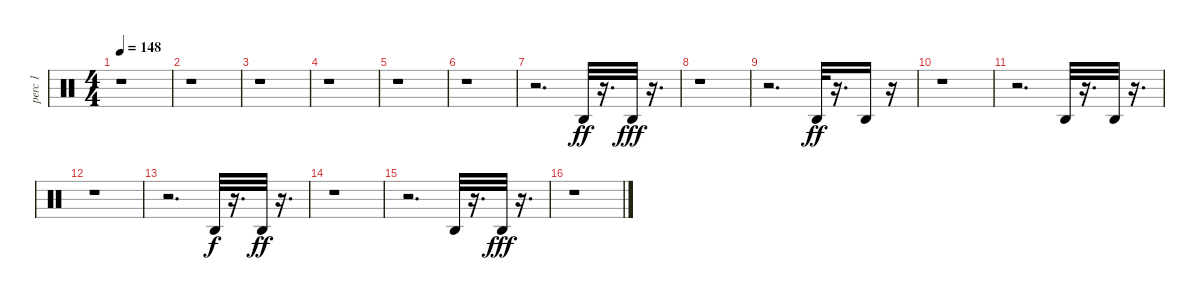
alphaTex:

\track ("perc 1              " "perc 1    ") {instrument percussion}
\staff {score}
\articulation defaults
\ts (4 4)
\tempo 148
\clef neutral
\ks c
r.1{dy ff} |
r.1 |
r.1 |
r.1 |
r.1 |
r.1 |
r.2{d} "Agogo high (hit)".32 r.16{d} "Agogo high (hit)".32{dy fff} r.16{d} |
r.1 |
r.2{d} "Agogo high (hit)".32{dy ff} r.16{d} "Agogo high (hit)".16 r.16 |
r.1 |
r.2{d} "Agogo high (hit)".32 r.16{d} "Agogo high (hit)".32 r.16{d} |
r.1 |
r.2{d} "Agogo high (hit)".32{dy f} r.16{d} "Agogo high (hit)".32{dy ff} r.16{d} |
r.1 |
r.2{d} "Agogo high (hit)".32 r.16{d} "Agogo high (hit)".32{dy fff} r.16{d} |
r.1
